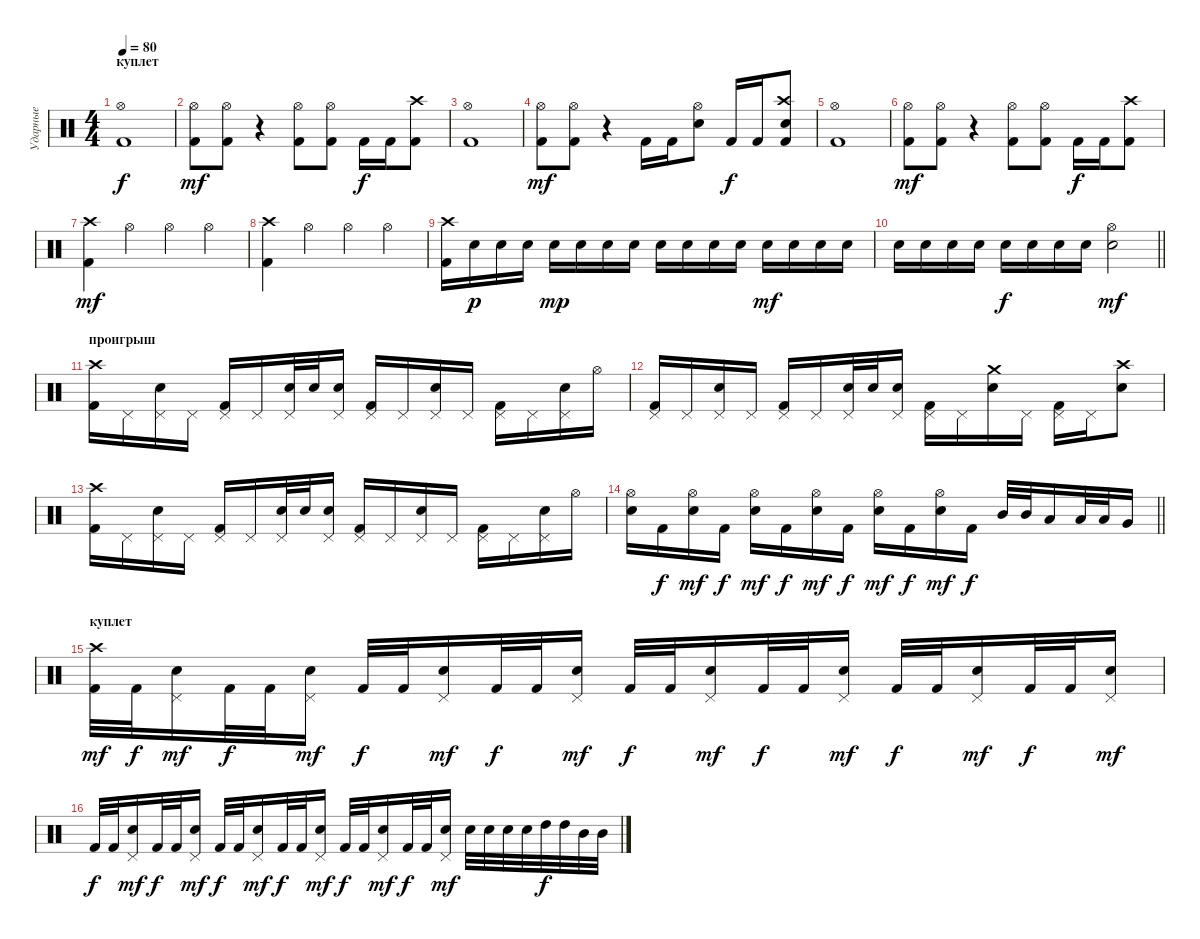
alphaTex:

\track ("Ударные" "Ударные") {instrument percussion}
\staff {score}
\articulation defaults
\ts (4 4)
\section ("" "куплет")
\tempo 80
\clef neutral
\ks c
("Kick (hit) 2" "Hi-Hat (open)").1{dy f} |
("Kick (hit) 2" "Hi-Hat (open)").8{dy mf} ("Kick (hit) 2" "Hi-Hat (open)").8 r.4 ("Kick (hit) 2" "Hi-Hat (open)").8 ("Kick (hit) 2" "Hi-Hat (open)").8 "Kick (hit) 2".16{dy f} "Kick (hit) 2".16 ("Kick (hit) 2" "Crash high (hit)").8 |
("Kick (hit) 2" "Hi-Hat (open)").1 |
("Kick (hit) 2" "Hi-Hat (open)").8{dy mf} ("Kick (hit) 2" "Hi-Hat (open)").8 r.4 "Kick (hit) 2".16 "Kick (hit) 2".16 ("Snare (hit) 2" "Hi-Hat (open)").8 "Kick (hit) 2".16{dy f} "Kick (hit) 2".16 ("Kick (hit) 2" "Snare (hit) 2" "Crash high (hit)").8 |
("Kick (hit) 2" "Hi-Hat (open)").1 |
("Kick (hit) 2" "Hi-Hat (open)").8{dy mf} ("Kick (hit) 2" "Hi-Hat (open)").8 r.4 ("Kick (hit) 2" "Hi-Hat (open)").8 ("Kick (hit) 2" "Hi-Hat (open)").8 "Kick (hit) 2".16{dy f} "Kick (hit) 2".16 ("Kick (hit) 2" "Crash high (hit)").8 |
("Kick (hit) 2" "Crash high (hit)").4{dy mf} "Hi-Hat (open)".4 "Hi-Hat (open)".4 "Hi-Hat (open)".4 |
("Kick (hit) 2" "Crash high (hit)").4 "Hi-Hat (open)".4 "Hi-Hat (open)".4 "Hi-Hat (open)".4 |
("Kick (hit) 2" "Crash high (hit)").16 "Snare (hit) 2".16{dy p} "Snare (hit) 2".16 "Snare (hit) 2".16 "Snare (hit) 2".16{dy mp} "Snare (hit) 2".16 "Snare (hit) 2".16 "Snare (hit) 2".16 "Snare (hit) 2".16 "Snare (hit) 2".16 "Snare (hit) 2".16 "Snare (hit) 2".16 "Snare (hit) 2".16{dy mf} "Snare (hit) 2".16 "Snare (hit) 2".16 "Snare (hit) 2".16 |
\barLineRight lightlight "Snare (hit) 2".16 "Snare (hit) 2".16 "Snare (hit) 2".16 "Snare (hit) 2".16 "Snare (hit) 2".16{dy f} "Snare (hit) 2".16 "Snare (hit) 2".16 "Snare (hit) 2".16
("Snare (hit) 2" "Hi-Hat (open)").2{dy mf} |
\section ("" "проигрыш")
("Kick (hit) 2" "Crash high (hit)").16 "Pedal Hi-Hat (hit)".16 ("Snare (hit) 2" "Pedal Hi-Hat (hit)").16 "Pedal Hi-Hat (hit)".16 ("Kick (hit) 2" "Pedal Hi-Hat (hit)").16 "Pedal Hi-Hat (hit)".16 ("Snare (hit) 2" "Pedal Hi-Hat (hit)").32 "Snare (hit) 2".32 ("Snare (hit) 2" "Pedal Hi-Hat (hit)").16 ("Kick (hit) 2" "Pedal Hi-Hat (hit)").16 "Pedal Hi-Hat (hit)".16 ("Snare (hit) 2" "Pedal Hi-Hat (hit)").16 "Pedal Hi-Hat (hit)".16 ("Kick (hit) 2" "Pedal Hi-Hat (hit)").16 "Pedal Hi-Hat (hit)".16 ("Snare (hit) 2" "Pedal Hi-Hat (hit)").16 "Hi-Hat (open)".16 |
("Kick (hit) 2" "Pedal Hi-Hat (hit)").16 "Pedal Hi-Hat (hit)".16 ("Snare (hit) 2" "Pedal Hi-Hat (hit)").16 "Pedal Hi-Hat (hit)".16 ("Kick (hit) 2" "Pedal Hi-Hat (hit)").16 "Pedal Hi-Hat (hit)".16 ("Snare (hit) 2" "Pedal Hi-Hat (hit)").32 "Snare (hit) 2".32 ("Snare (hit) 2" "Pedal Hi-Hat (hit)").16 ("Kick (hit) 2" "Pedal Hi-Hat (hit)").16 "Pedal Hi-Hat (hit)".16 ("Snare (hit) 2" "Crash medium (hit)").16 "Pedal Hi-Hat (hit)".16 ("Kick (hit) 2" "Pedal Hi-Hat (hit)").16 "Pedal Hi-Hat (hit)".16 ("Snare (hit) 2" "Crash high (hit)").8 |
("Kick (hit) 2" "Crash high (hit)").16 "Pedal Hi-Hat (hit)".16 ("Snare (hit) 2" "Pedal Hi-Hat (hit)").16 "Pedal Hi-Hat (hit)".16 ("Kick (hit) 2" "Pedal Hi-Hat (hit)").16 "Pedal Hi-Hat (hit)".16 ("Snare (hit) 2" "Pedal Hi-Hat (hit)").32 "Snare (hit) 2".32 ("Snare (hit) 2" "Pedal Hi-Hat (hit)").16 ("Kick (hit) 2" "Pedal Hi-Hat (hit)").16 "Pedal Hi-Hat (hit)".16 ("Snare (hit) 2" "Pedal Hi-Hat (hit)").16 "Pedal Hi-Hat (hit)".16 ("Kick (hit) 2" "Pedal Hi-Hat (hit)").16 "Pedal Hi-Hat (hit)".16 ("Snare (hit) 2" "Pedal Hi-Hat (hit)").16 "Hi-Hat (open)".16 |
\barLineRight lightlight
("Snare (hit) 2" "Hi-Hat (open)").16 "Kick (hit) 2".16{dy f} ("Snare (hit) 2" "Hi-Hat (open)").16{dy mf} "Kick (hit) 2".16{dy f} ("Snare (hit) 2" "Hi-Hat (open)").16{dy mf} "Kick (hit) 2".16{dy f} ("Snare (hit) 2" "Hi-Hat (open)").16{dy mf} "Kick (hit) 2".16{dy f} ("Snare (hit) 2" "Hi-Hat (open)").16{dy mf} "Kick (hit) 2".16{dy f} ("Snare (hit) 2" "Hi-Hat (open)").16{dy mf} "Kick (hit) 2".16{dy f} "Mid Tom (hit)".32 "Mid Tom (hit)".32 "Low Tom (hit)".16 "Low Tom (hit)".32 "Low Tom (hit)".32 "Very Low Tom (hit)".16 |
\section ("" "куплет")
("Kick (hit) 2" "Crash high (hit)").32{dy mf} "Kick (hit) 2".32{dy f} ("Snare (hit) 2" "Pedal Hi-Hat (hit)").16{dy mf} "Kick (hit) 2".32{dy f} "Kick (hit) 2".32 ("Snare (hit) 2" "Pedal Hi-Hat (hit)").16{dy mf} "Kick (hit) 2".32{dy f} "Kick (hit) 2".32 ("Snare (hit) 2" "Pedal Hi-Hat (hit)").16{dy mf} "Kick (hit) 2".32{dy f} "Kick (hit) 2".32 ("Snare (hit) 2" "Pedal Hi-Hat (hit)").16{dy mf} "Kick (hit) 2".32{dy f} "Kick (hit) 2".32 ("Snare (hit) 2" "Pedal Hi-Hat (hit)").16{dy mf} "Kick (hit) 2".32{dy f} "Kick (hit) 2".32 ("Snare (hit) 2" "Pedal Hi-Hat (hit)").16{dy mf} "Kick (hit) 2".32{dy f} "Kick (hit) 2".32 ("Snare (hit) 2" "Pedal Hi-Hat (hit)").16{dy mf} "Kick (hit) 2".32{dy f} "Kick (hit) 2".32 ("Snare (hit) 2" "Pedal Hi-Hat (hit)").16{dy mf} |
"Kick (hit) 2".32{dy f} "Kick (hit) 2".32 ("Snare (hit) 2" "Pedal Hi-Hat (hit)").16{dy mf} "Kick (hit) 2".32{dy f} "Kick (hit) 2".32 ("Snare (hit) 2" "Pedal Hi-Hat (hit)").16{dy mf} "Kick (hit) 2".32{dy f} "Kick (hit) 2".32 ("Snare (hit) 2" "Pedal Hi-Hat (hit)").16{dy mf} "Kick (hit) 2".32{dy f} "Kick (hit) 2".32 ("Snare (hit) 2" "Pedal Hi-Hat (hit)").16{dy mf} "Kick (hit) 2".32{dy f} "Kick (hit) 2".32 ("Snare (hit) 2" "Pedal Hi-Hat (hit)").16{dy mf} "Kick (hit) 2".32{dy f} "Kick (hit) 2".32 ("Snare (hit) 2" "Pedal Hi-Hat (hit)").16{dy mf} "Snare (hit) 2".32 "Snare (hit) 2".32 "Snare (hit) 2".32 "Snare (hit) 2".32 "High Tom (hit)".32{dy f} "High Tom (hit)".32 "Mid Tom (hit)".32 "Mid Tom (hit)".32
